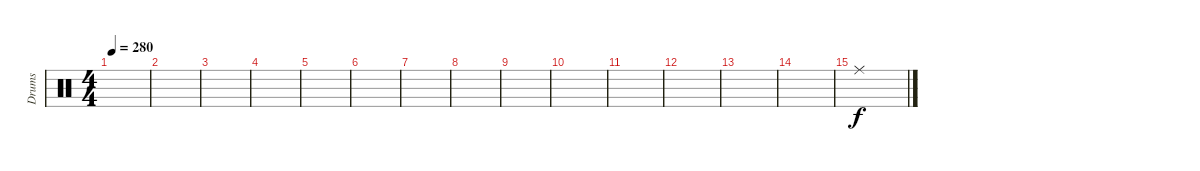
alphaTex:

\track ("Drums" "Drums") {instrument percussion}
\staff {score}
\articulation defaults
\ts (4 4)
\tempo 280
\clef neutral
\ks c
|
|
|
|
|
|
|
|
|
|
|
|
|
|
"Ride (middle)".1
